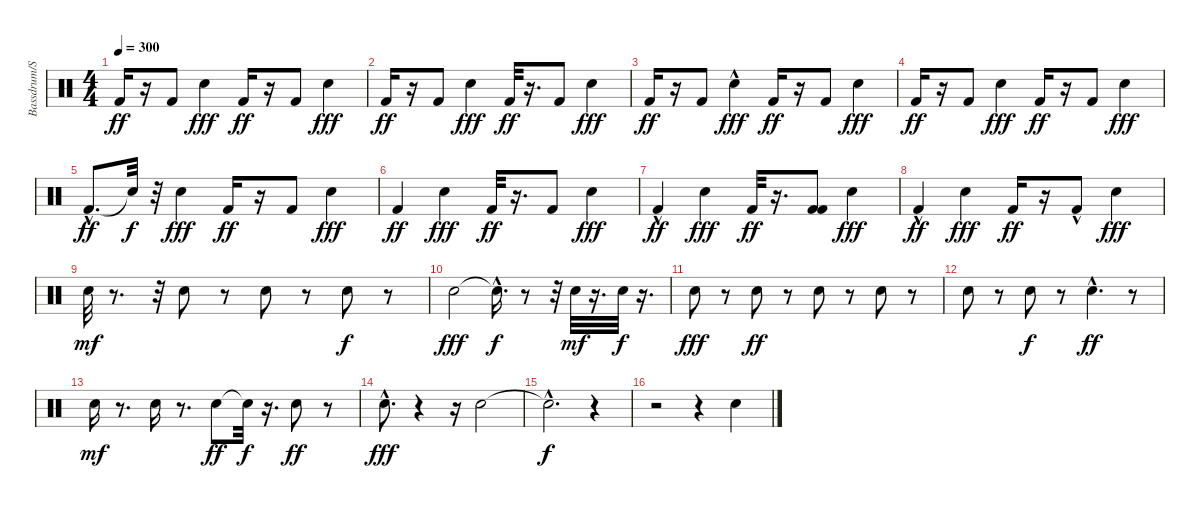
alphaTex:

\track ("Bassdrum/Snare" "Bassdrum/S") {instrument percussion}
\staff {score}
\articulation defaults
\ts (4 4)
\tempo 300
\clef neutral
\ks c "Kick (hit) 2".16{dy ff}
r.16 "Kick (hit) 2".8 "Snare (hit) 2".4{dy fff} "Kick (hit) 2".16{dy ff} r.16 "Kick (hit) 2".8 "Snare (hit) 2".4{dy fff} |
"Kick (hit) 2".16{dy ff} r.16 "Kick (hit) 2".8 "Snare (hit) 2".4{dy fff} "Kick (hit) 2".32{dy ff} r.16{d} "Kick (hit) 2".8 "Snare (hit) 2".4{dy fff} |
"Kick (hit) 2".16{dy ff} r.16 "Kick (hit) 2".8 "Snare (hit) 2"{hac}.4{dy fff} "Kick (hit) 2".16{dy ff} r.16 "Kick (hit) 2".8 "Snare (hit) 2".4{dy fff} |
"Kick (hit) 2".16{dy ff} r.16 "Kick (hit) 2".8 "Snare (hit) 2".4{dy fff} "Kick (hit) 2".16{dy ff} r.16 "Kick (hit) 2".8 "Snare (hit) 2".4{dy fff} |
"Kick (hit) 2"{hac}.8{d dy ff} "Snare (hit)"{t}.32{dy f} r.32 "Snare (hit) 2".4{dy fff} "Kick (hit) 2".16{dy ff} r.16 "Kick (hit) 2".8 "Snare (hit) 2".4{dy fff} |
"Kick (hit) 2".4{dy ff} "Snare (hit) 2".4{dy fff} "Kick (hit) 2".32{dy ff} r.16{d} "Kick (hit) 2".8 "Snare (hit) 2".4{dy fff} |
"Kick (hit) 2"{hac}.4{dy ff} "Snare (hit) 2".4{dy fff} "Kick (hit) 2".32{dy ff} r.16{d} ("Kick (hit) 2" "Kick (hit) 2").8 "Snare (hit) 2".4{dy fff} |
"Kick (hit) 2"{hac}.4{dy ff} "Snare (hit) 2".4{dy fff} "Kick (hit) 2".16{dy ff} r.16 "Kick (hit) 2"{hac}.8 "Snare (hit) 2".4{dy fff} |
"Snare (hit) 2".32{dy mf} r.8{d} r.32 "Snare (hit) 2".8 r.8 "Snare (hit) 2".8 r.8 "Snare (hit) 2".8{dy f} r.8 |
"Snare (hit) 2".2{dy fff} "Snare (hit)"{hac t}.16{d dy f} r.8 r.32 "Snare (hit) 2".32{dy mf} r.16{d} "Snare (hit) 2".32{dy f} r.16{d} |
"Snare (hit) 2".8{dy fff} r.8 "Snare (hit) 2".8{dy ff} r.8 "Snare (hit) 2".8 r.8 "Snare (hit) 2".8 r.8 |
"Snare (hit) 2".8 r.8 "Snare (hit) 2".8{dy f} r.8 "Snare (hit) 2"{hac}.4{d dy ff} r.8 |
"Snare (hit) 2".16{dy mf} r.8{d} "Snare (hit) 2".16 r.8{d} "Snare (hit) 2".8{dy ff} "Snare (hit)"{t}.32{dy f} r.16{d} "Snare (hit) 2".8{dy ff} r.8 |
"Snare (hit) 2"{hac}.8{d dy fff} r.4 r.16 "Snare (hit) 2".2 |
"Snare (hit)"{hac t}.2{d dy f} r.4 |
r.2 r.4 "Snare (hit) 2".4
